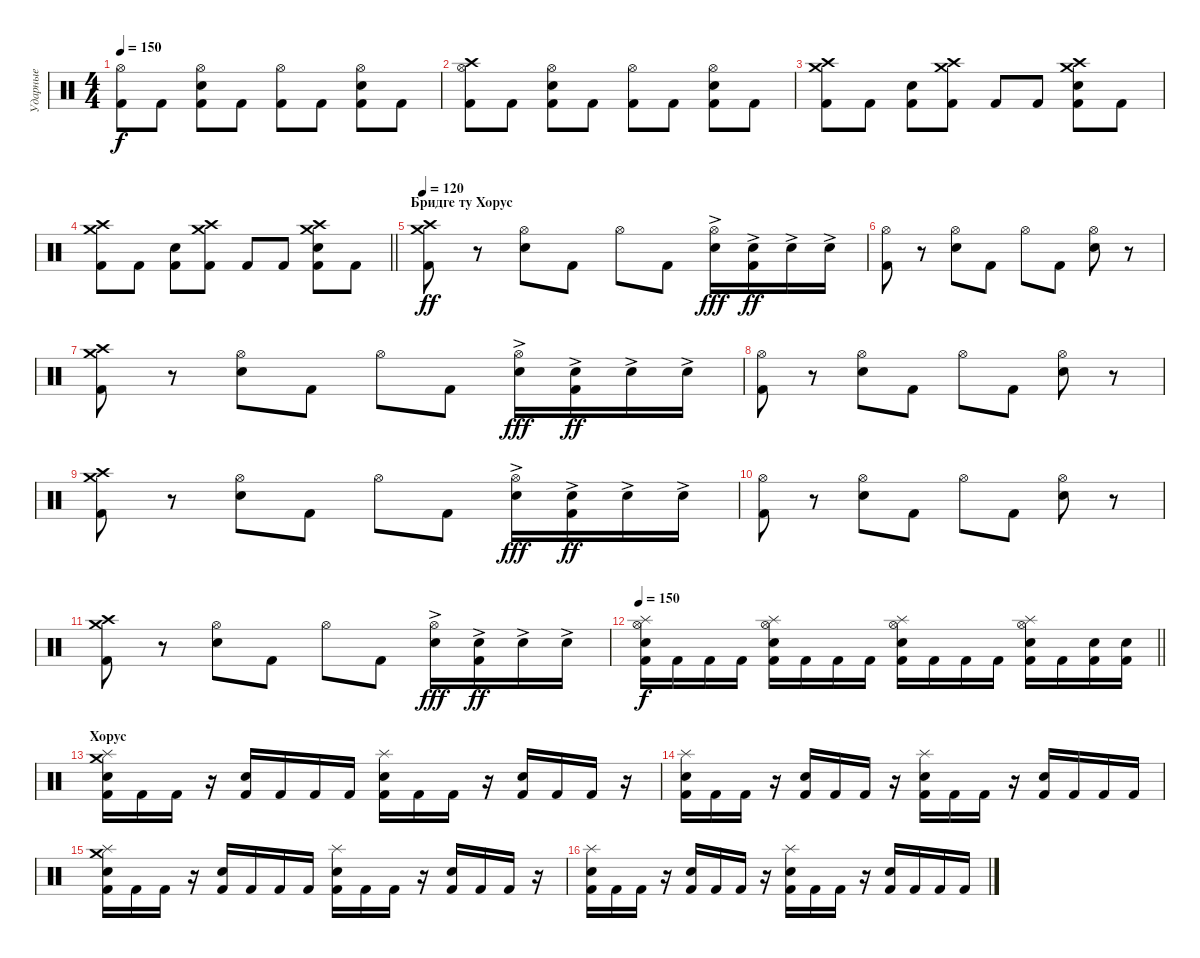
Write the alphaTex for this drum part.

\track ("Ударные" "Ударные") {instrument percussion}
\staff {score}
\articulation defaults
\ts (4 4)
\tempo 150
\clef neutral
\ks c
("Hi-Hat (open)" "Kick (hit) 2").8{dy f} "Kick (hit) 2".8 ("Hi-Hat (open)" "Snare (hit) 2" "Kick (hit) 2").8 "Kick (hit) 2".8 ("Hi-Hat (open)" "Kick (hit) 2").8 "Kick (hit) 2".8 ("Hi-Hat (open)" "Snare (hit) 2" "Kick (hit) 2").8 "Kick (hit) 2".8 |
("Crash high (hit)" "Hi-Hat (open)" "Kick (hit) 2").8 "Kick (hit) 2".8 ("Hi-Hat (open)" "Snare (hit) 2" "Kick (hit) 2").8 "Kick (hit) 2".8 ("Hi-Hat (open)" "Kick (hit) 2").8 "Kick (hit) 2".8 ("Hi-Hat (open)" "Snare (hit) 2" "Kick (hit) 2").8 "Kick (hit) 2".8 |
("Crash high (hit)" "Crash medium (hit)" "Kick (hit) 2").8 "Kick (hit) 2".8 ("Snare (hit) 2" "Kick (hit) 2").8 ("Crash high (hit)" "Crash medium (hit)" "Kick (hit) 2").8 "Kick (hit) 2".8 "Kick (hit) 2".8 ("Crash high (hit)" "Crash medium (hit)" "Snare (hit) 2" "Kick (hit) 2").8 "Kick (hit) 2".8 |
\barLineRight lightlight
("Crash high (hit)" "Crash medium (hit)" "Kick (hit) 2").8 "Kick (hit) 2".8 ("Snare (hit) 2" "Kick (hit) 2").8 ("Crash high (hit)" "Crash medium (hit)" "Kick (hit) 2").8 "Kick (hit) 2".8 "Kick (hit) 2".8 ("Crash high (hit)" "Crash medium (hit)" "Snare (hit) 2" "Kick (hit) 2").8 "Kick (hit) 2".8 |
\section ("" "Бридге ту Хорус")
\tempo 120
("Crash high (hit)" "Crash medium (hit)" "Kick (hit) 2").8{dy ff} r.8 ("Hi-Hat (open)" "Snare (hit) 2").8 "Kick (hit) 2".8 "Hi-Hat (open)".8 "Kick (hit) 2".8 ("Hi-Hat (open)" "Snare (hit) 2"{ac}).16{dy fff} ("Snare (hit) 2"{ac} "Kick (hit) 2").16{dy ff} "Snare (hit) 2"{ac}.16 "Snare (hit) 2"{ac}.16 |
("Hi-Hat (open)" "Kick (hit) 2").8 r.8 ("Hi-Hat (open)" "Snare (hit) 2").8 "Kick (hit) 2".8 "Hi-Hat (open)".8 "Kick (hit) 2".8 ("Hi-Hat (open)" "Snare (hit) 2").8 r.8 |
("Crash high (hit)" "Crash medium (hit)" "Kick (hit) 2").8 r.8 ("Hi-Hat (open)" "Snare (hit) 2").8 "Kick (hit) 2".8 "Hi-Hat (open)".8 "Kick (hit) 2".8 ("Hi-Hat (open)" "Snare (hit) 2"{ac}).16{dy fff} ("Snare (hit) 2"{ac} "Kick (hit) 2").16{dy ff} "Snare (hit) 2"{ac}.16 "Snare (hit) 2"{ac}.16 |
("Hi-Hat (open)" "Kick (hit) 2").8 r.8 ("Hi-Hat (open)" "Snare (hit) 2").8 "Kick (hit) 2".8 "Hi-Hat (open)".8 "Kick (hit) 2".8 ("Hi-Hat (open)" "Snare (hit) 2").8 r.8 |
("Crash high (hit)" "Crash medium (hit)" "Kick (hit) 2").8 r.8 ("Hi-Hat (open)" "Snare (hit) 2").8 "Kick (hit) 2".8 "Hi-Hat (open)".8 "Kick (hit) 2".8 ("Hi-Hat (open)" "Snare (hit) 2"{ac}).16{dy fff} ("Snare (hit) 2"{ac} "Kick (hit) 2").16{dy ff} "Snare (hit) 2"{ac}.16 "Snare (hit) 2"{ac}.16 |
("Hi-Hat (open)" "Kick (hit) 2").8 r.8 ("Hi-Hat (open)" "Snare (hit) 2").8 "Kick (hit) 2".8 "Hi-Hat (open)".8 "Kick (hit) 2".8 ("Hi-Hat (open)" "Snare (hit) 2").8 r.8 |
("Crash high (hit)" "Crash medium (hit)" "Kick (hit) 2").8 r.8 ("Hi-Hat (open)" "Snare (hit) 2").8 "Kick (hit) 2".8 "Hi-Hat (open)".8 "Kick (hit) 2".8 ("Hi-Hat (open)" "Snare (hit) 2"{ac}).16{dy fff} ("Snare (hit) 2"{ac} "Kick (hit) 2").16{dy ff} "Snare (hit) 2"{ac}.16 "Snare (hit) 2"{ac}.16 |
\tempo 150
\barLineRight lightlight
("Hi-Hat (open)" "Splash (hit)" "Snare (hit) 2" "Kick (hit) 2").16{dy f} "Kick (hit) 2".16 "Kick (hit) 2".16 "Kick (hit) 2".16 ("Hi-Hat (open)" "Splash (hit)" "Snare (hit) 2" "Kick (hit) 2").16 "Kick (hit) 2".16 "Kick (hit) 2".16 "Kick (hit) 2".16 ("Hi-Hat (open)" "Splash (hit)" "Snare (hit) 2" "Kick (hit) 2").16 "Kick (hit) 2".16 "Kick (hit) 2".16 "Kick (hit) 2".16 ("Hi-Hat (open)" "Splash (hit)" "Snare (hit) 2" "Kick (hit) 2").16 "Kick (hit) 2".16 ("Snare (hit) 2" "Kick (hit) 2").16 ("Snare (hit) 2" "Kick (hit) 2").16 |
\section ("" "Хорус")
("Crash medium (hit)" "Splash (hit)" "Snare (hit) 2" "Kick (hit) 2").16 "Kick (hit) 2".16 "Kick (hit) 2".16 r.16 ("Snare (hit) 2" "Kick (hit) 2").16 "Kick (hit) 2".16 "Kick (hit) 2".16 "Kick (hit) 2".16 ("Splash (hit)" "Snare (hit) 2" "Kick (hit) 2").16 "Kick (hit) 2".16 "Kick (hit) 2".16 r.16 ("Snare (hit) 2" "Kick (hit) 2").16 "Kick (hit) 2".16 "Kick (hit) 2".16 r.16 |
("Splash (hit)" "Snare (hit) 2" "Kick (hit) 2").16 "Kick (hit) 2".16 "Kick (hit) 2".16 r.16 ("Snare (hit) 2" "Kick (hit) 2").16 "Kick (hit) 2".16 "Kick (hit) 2".16 r.16 ("Splash (hit)" "Snare (hit) 2" "Kick (hit) 2").16 "Kick (hit) 2".16 "Kick (hit) 2".16 r.16 ("Snare (hit) 2" "Kick (hit) 2").16 "Kick (hit) 2".16 "Kick (hit) 2".16 "Kick (hit) 2".16 |
("Crash medium (hit)" "Splash (hit)" "Snare (hit) 2" "Kick (hit) 2").16 "Kick (hit) 2".16 "Kick (hit) 2".16 r.16 ("Snare (hit) 2" "Kick (hit) 2").16 "Kick (hit) 2".16 "Kick (hit) 2".16 "Kick (hit) 2".16 ("Splash (hit)" "Snare (hit) 2" "Kick (hit) 2").16 "Kick (hit) 2".16 "Kick (hit) 2".16 r.16 ("Snare (hit) 2" "Kick (hit) 2").16 "Kick (hit) 2".16 "Kick (hit) 2".16 r.16 |
("Splash (hit)" "Snare (hit) 2" "Kick (hit) 2").16 "Kick (hit) 2".16 "Kick (hit) 2".16 r.16 ("Snare (hit) 2" "Kick (hit) 2").16 "Kick (hit) 2".16 "Kick (hit) 2".16 r.16 ("Splash (hit)" "Snare (hit) 2" "Kick (hit) 2").16 "Kick (hit) 2".16 "Kick (hit) 2".16 r.16 ("Snare (hit) 2" "Kick (hit) 2").16 "Kick (hit) 2".16 "Kick (hit) 2".16 "Kick (hit) 2".16
